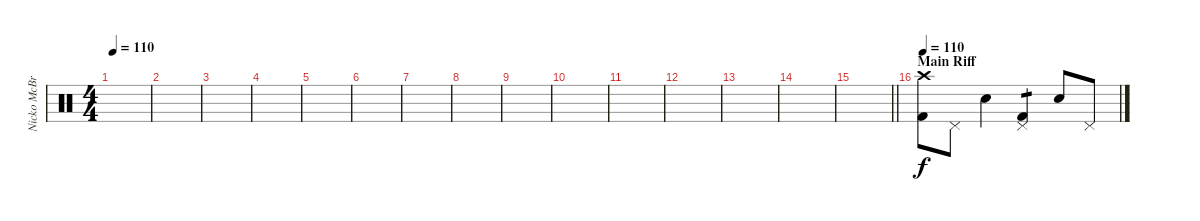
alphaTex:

\track ("Nicko McBrain" "Nicko McBr") {instrument percussion}
\staff {score}
\articulation defaults
\ts (4 4)
\tempo 110
\clef neutral
\ks c
|
|
|
|
|
|
|
|
|
|
|
|
|
|
\barLineRight lightlight
|
\section ("" "Main Riff")
\tempo 110
("Crash high (hit)" "Kick (hit) 2").8 "Pedal Hi-Hat (hit)".8 "Electric Snare (hit)".4 ("Pedal Hi-Hat (hit)" "Kick (hit) 2").4{tp 1} "Electric Snare (hit)".8 "Pedal Hi-Hat (hit)".8
